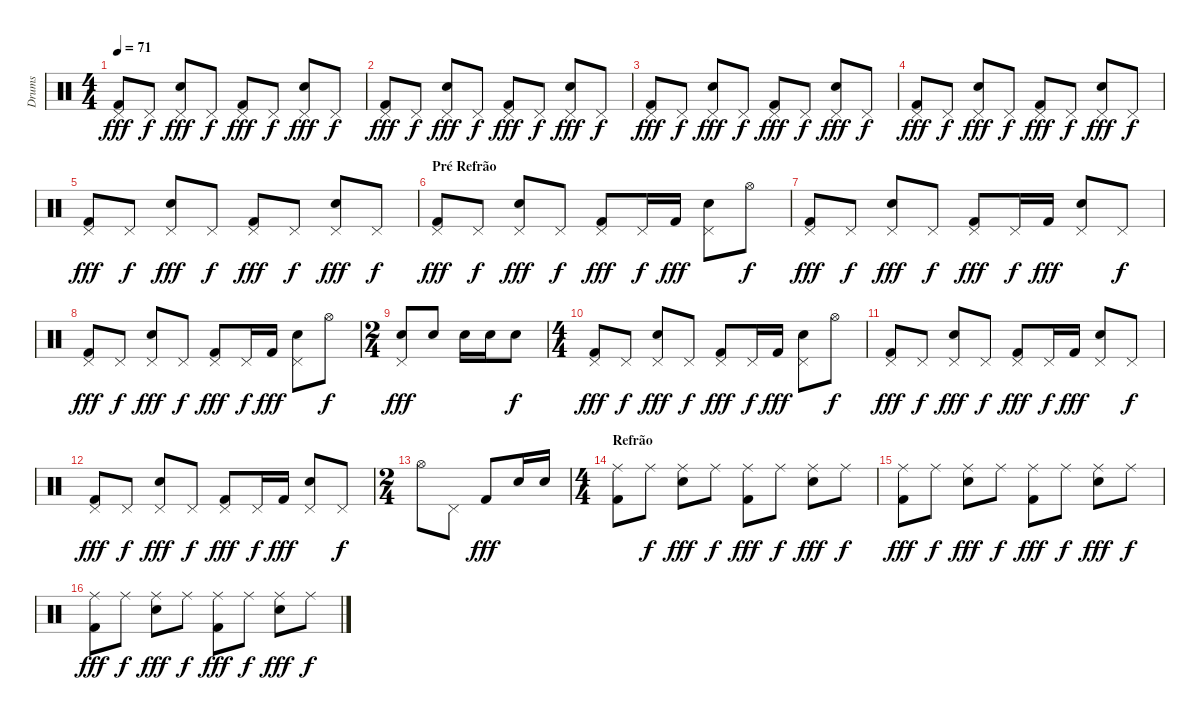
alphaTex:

\track ("Drums" "Drums") {instrument percussion}
\staff {score}
\articulation defaults
\ts (4 4)
\tempo 71
\clef neutral
\ks c
("Pedal Hi-Hat (hit)" "Kick (hit) 2").8{dy fff} "Pedal Hi-Hat (hit)".8{dy f} ("Pedal Hi-Hat (hit)" "Electric Snare (hit)").8{dy fff} "Pedal Hi-Hat (hit)".8{dy f} ("Pedal Hi-Hat (hit)" "Kick (hit) 2").8{dy fff} "Pedal Hi-Hat (hit)".8{dy f} ("Pedal Hi-Hat (hit)" "Electric Snare (hit)").8{dy fff} "Pedal Hi-Hat (hit)".8{dy f} |
("Pedal Hi-Hat (hit)" "Kick (hit) 2").8{dy fff} "Pedal Hi-Hat (hit)".8{dy f} ("Pedal Hi-Hat (hit)" "Electric Snare (hit)").8{dy fff} "Pedal Hi-Hat (hit)".8{dy f} ("Pedal Hi-Hat (hit)" "Kick (hit) 2").8{dy fff} "Pedal Hi-Hat (hit)".8{dy f} ("Pedal Hi-Hat (hit)" "Electric Snare (hit)").8{dy fff} "Pedal Hi-Hat (hit)".8{dy f} |
("Pedal Hi-Hat (hit)" "Kick (hit) 2").8{dy fff} "Pedal Hi-Hat (hit)".8{dy f} ("Pedal Hi-Hat (hit)" "Electric Snare (hit)").8{dy fff} "Pedal Hi-Hat (hit)".8{dy f} ("Pedal Hi-Hat (hit)" "Kick (hit) 2").8{dy fff} "Pedal Hi-Hat (hit)".8{dy f} ("Pedal Hi-Hat (hit)" "Electric Snare (hit)").8{dy fff} "Pedal Hi-Hat (hit)".8{dy f} |
("Pedal Hi-Hat (hit)" "Kick (hit) 2").8{dy fff} "Pedal Hi-Hat (hit)".8{dy f} ("Pedal Hi-Hat (hit)" "Electric Snare (hit)").8{dy fff} "Pedal Hi-Hat (hit)".8{dy f} ("Pedal Hi-Hat (hit)" "Kick (hit) 2").8{dy fff} "Pedal Hi-Hat (hit)".8{dy f} ("Pedal Hi-Hat (hit)" "Electric Snare (hit)").8{dy fff} "Pedal Hi-Hat (hit)".8{dy f} |
("Pedal Hi-Hat (hit)" "Kick (hit) 2").8{dy fff} "Pedal Hi-Hat (hit)".8{dy f} ("Pedal Hi-Hat (hit)" "Electric Snare (hit)").8{dy fff} "Pedal Hi-Hat (hit)".8{dy f} ("Pedal Hi-Hat (hit)" "Kick (hit) 2").8{dy fff} "Pedal Hi-Hat (hit)".8{dy f} ("Pedal Hi-Hat (hit)" "Electric Snare (hit)").8{dy fff} "Pedal Hi-Hat (hit)".8{dy f} |
\section ("" "Pré Refrão")
("Pedal Hi-Hat (hit)" "Kick (hit) 2").8{dy fff} "Pedal Hi-Hat (hit)".8{dy f} ("Pedal Hi-Hat (hit)" "Electric Snare (hit)").8{dy fff} "Pedal Hi-Hat (hit)".8{dy f} ("Pedal Hi-Hat (hit)" "Kick (hit) 2").8{dy fff} "Pedal Hi-Hat (hit)".16{dy f} "Kick (hit) 2".16{dy fff} ("Pedal Hi-Hat (hit)" "Electric Snare (hit)").8 "Hi-Hat (open)".8{dy f} |
("Pedal Hi-Hat (hit)" "Kick (hit) 2").8{dy fff} "Pedal Hi-Hat (hit)".8{dy f} ("Pedal Hi-Hat (hit)" "Electric Snare (hit)").8{dy fff} "Pedal Hi-Hat (hit)".8{dy f} ("Pedal Hi-Hat (hit)" "Kick (hit) 2").8{dy fff} "Pedal Hi-Hat (hit)".16{dy f} "Kick (hit) 2".16{dy fff} ("Pedal Hi-Hat (hit)" "Electric Snare (hit)").8 "Pedal Hi-Hat (hit)".8{dy f} |
("Pedal Hi-Hat (hit)" "Kick (hit) 2").8{dy fff} "Pedal Hi-Hat (hit)".8{dy f} ("Pedal Hi-Hat (hit)" "Electric Snare (hit)").8{dy fff} "Pedal Hi-Hat (hit)".8{dy f} ("Pedal Hi-Hat (hit)" "Kick (hit) 2").8{dy fff} "Pedal Hi-Hat (hit)".16{dy f} "Kick (hit) 2".16{dy fff} ("Pedal Hi-Hat (hit)" "Electric Snare (hit)").8 "Hi-Hat (open)".8{dy f} |
\ts (2 4)
("Electric Snare (hit)" "Pedal Hi-Hat (hit)").8{dy fff} "Electric Snare (hit)".8 "Electric Snare (hit)".16 "Electric Snare (hit)".16 "Electric Snare (hit)".8{dy f} |
\ts (4 4)
("Pedal Hi-Hat (hit)" "Kick (hit) 2").8{dy fff} "Pedal Hi-Hat (hit)".8{dy f} ("Pedal Hi-Hat (hit)" "Electric Snare (hit)").8{dy fff} "Pedal Hi-Hat (hit)".8{dy f} ("Pedal Hi-Hat (hit)" "Kick (hit) 2").8{dy fff} "Pedal Hi-Hat (hit)".16{dy f} "Kick (hit) 2".16{dy fff} ("Pedal Hi-Hat (hit)" "Electric Snare (hit)").8 "Hi-Hat (open)".8{dy f} |
("Pedal Hi-Hat (hit)" "Kick (hit) 2").8{dy fff} "Pedal Hi-Hat (hit)".8{dy f} ("Pedal Hi-Hat (hit)" "Electric Snare (hit)").8{dy fff} "Pedal Hi-Hat (hit)".8{dy f} ("Pedal Hi-Hat (hit)" "Kick (hit) 2").8{dy fff} "Pedal Hi-Hat (hit)".16{dy f} "Kick (hit) 2".16{dy fff} ("Pedal Hi-Hat (hit)" "Electric Snare (hit)").8 "Pedal Hi-Hat (hit)".8{dy f} |
("Pedal Hi-Hat (hit)" "Kick (hit) 2").8{dy fff} "Pedal Hi-Hat (hit)".8{dy f} ("Pedal Hi-Hat (hit)" "Electric Snare (hit)").8{dy fff} "Pedal Hi-Hat (hit)".8{dy f} ("Pedal Hi-Hat (hit)" "Kick (hit) 2").8{dy fff} "Pedal Hi-Hat (hit)".16{dy f} "Kick (hit) 2".16{dy fff} ("Pedal Hi-Hat (hit)" "Electric Snare (hit)").8 "Pedal Hi-Hat (hit)".8{dy f} |
\ts (2 4)
"Hi-Hat (open)".8 "Pedal Hi-Hat (hit)".8 "Kick (hit) 2".8{dy fff} "Electric Snare (hit)".16 "Electric Snare (hit)".16 |
\ts (4 4)
\section ("" "Refrão")
("Ride (middle)" "Kick (hit) 2").8 "Ride (middle)".8{dy f} ("Ride (middle)" "Electric Snare (hit)").8{dy fff} "Ride (middle)".8{dy f} ("Ride (middle)" "Kick (hit) 2").8{dy fff} "Ride (middle)".8{dy f} ("Ride (middle)" "Electric Snare (hit)").8{dy fff} "Ride (middle)".8{dy f} |
("Ride (middle)" "Kick (hit) 2").8{dy fff} "Ride (middle)".8{dy f} ("Ride (middle)" "Electric Snare (hit)").8{dy fff} "Ride (middle)".8{dy f} ("Ride (middle)" "Kick (hit) 2").8{dy fff} "Ride (middle)".8{dy f} ("Ride (middle)" "Electric Snare (hit)").8{dy fff} "Ride (middle)".8{dy f} |
("Ride (middle)" "Kick (hit) 2").8{dy fff} "Ride (middle)".8{dy f} ("Ride (middle)" "Electric Snare (hit)").8{dy fff} "Ride (middle)".8{dy f} ("Ride (middle)" "Kick (hit) 2").8{dy fff} "Ride (middle)".8{dy f} ("Ride (middle)" "Electric Snare (hit)").8{dy fff} "Ride (middle)".8{dy f}
